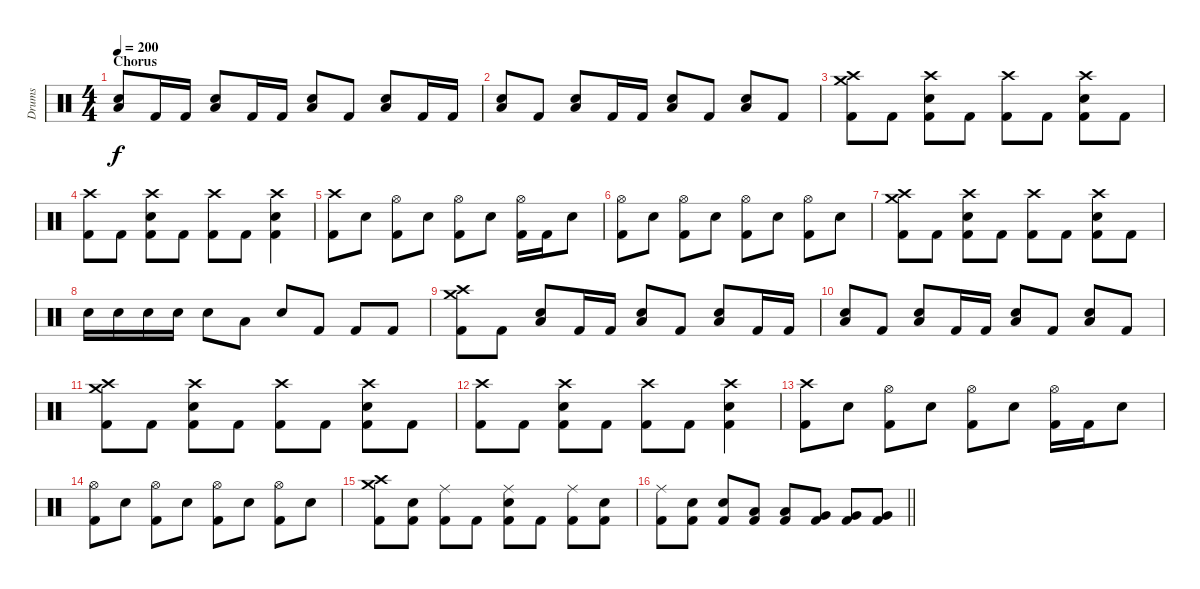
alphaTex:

\track ("Drums" "Drums") {instrument percussion}
\staff {score}
\articulation defaults
\ts (4 4)
\section ("" "Chorus")
\tempo 200
\clef neutral
\ks c
("Electric Snare (hit)" "Low Floor Tom (hit)").8{dy f} "Kick (hit) 2".16 "Kick (hit) 2".16 ("Electric Snare (hit)" "Low Floor Tom (hit)").8 "Kick (hit) 2".16 "Kick (hit) 2".16 ("Electric Snare (hit)" "Low Floor Tom (hit)").8 "Kick (hit) 2".8 ("Electric Snare (hit)" "Low Floor Tom (hit)").8 "Kick (hit) 2".16 "Kick (hit) 2".16 |
("Electric Snare (hit)" "Low Floor Tom (hit)").8 "Kick (hit) 2".8 ("Electric Snare (hit)" "Low Floor Tom (hit)").8 "Kick (hit) 2".16 "Kick (hit) 2".16 ("Electric Snare (hit)" "Low Floor Tom (hit)").8 "Kick (hit) 2".8 ("Electric Snare (hit)" "Low Floor Tom (hit)").8 "Kick (hit) 2".8 |
("Crash medium (hit)" "Crash high (hit)" "Kick (hit) 2").8 "Kick (hit) 2".8 ("Crash high (hit)" "Electric Snare (hit)" "Kick (hit) 2").8 "Kick (hit) 2".8 ("Crash high (hit)" "Kick (hit) 2").8 "Kick (hit) 2".8 ("Crash high (hit)" "Electric Snare (hit)" "Kick (hit) 2").8 "Kick (hit) 2".8 |
("Crash high (hit)" "Kick (hit) 2").8 "Kick (hit) 2".8 ("Crash high (hit)" "Electric Snare (hit)" "Kick (hit) 2").8 "Kick (hit) 2".8 ("Crash high (hit)" "Kick (hit) 2").8 "Kick (hit) 2".8 ("Crash high (hit)" "Electric Snare (hit)" "Kick (hit) 2").4 |
("Crash high (hit)" "Kick (hit) 2").8 "Electric Snare (hit)".8 ("Hi-Hat (open)" "Kick (hit) 2").8 "Electric Snare (hit)".8 ("Hi-Hat (open)" "Kick (hit) 2").8 "Electric Snare (hit)".8 ("Hi-Hat (open)" "Kick (hit) 2").16 "Kick (hit) 2".16 "Electric Snare (hit)".8 |
("Hi-Hat (open)" "Kick (hit) 2").8 "Electric Snare (hit)".8 ("Hi-Hat (open)" "Kick (hit) 2").8 "Electric Snare (hit)".8 ("Hi-Hat (open)" "Kick (hit) 2").8 "Electric Snare (hit)".8 ("Hi-Hat (open)" "Kick (hit) 2").8 "Electric Snare (hit)".8 |
("Crash medium (hit)" "Crash high (hit)" "Kick (hit) 2").8 "Kick (hit) 2".8 ("Crash high (hit)" "Electric Snare (hit)" "Kick (hit) 2").8 "Kick (hit) 2".8 ("Crash high (hit)" "Kick (hit) 2").8 "Kick (hit) 2".8 ("Crash high (hit)" "Electric Snare (hit)" "Kick (hit) 2").8 "Kick (hit) 2".8 |
"Electric Snare (hit)".16 "Electric Snare (hit)".16 "Electric Snare (hit)".16 "Electric Snare (hit)".16 "Electric Snare (hit)".8 "Low Tom (hit)".8 "Electric Snare (hit)".8 "Kick (hit) 2".8 "Kick (hit) 2".8 "Kick (hit) 2".8 |
("Crash medium (hit)" "Crash high (hit)" "Kick (hit) 2").8 "Kick (hit) 2".8 ("Electric Snare (hit)" "Low Floor Tom (hit)").8 "Kick (hit) 2".16 "Kick (hit) 2".16 ("Electric Snare (hit)" "Low Floor Tom (hit)").8 "Kick (hit) 2".8 ("Electric Snare (hit)" "Low Floor Tom (hit)").8 "Kick (hit) 2".16 "Kick (hit) 2".16 |
("Electric Snare (hit)" "Low Floor Tom (hit)").8 "Kick (hit) 2".8 ("Electric Snare (hit)" "Low Floor Tom (hit)").8 "Kick (hit) 2".16 "Kick (hit) 2".16 ("Electric Snare (hit)" "Low Floor Tom (hit)").8 "Kick (hit) 2".8 ("Electric Snare (hit)" "Low Floor Tom (hit)").8 "Kick (hit) 2".8 |
("Crash medium (hit)" "Crash high (hit)" "Kick (hit) 2").8 "Kick (hit) 2".8 ("Crash high (hit)" "Electric Snare (hit)" "Kick (hit) 2").8 "Kick (hit) 2".8 ("Crash high (hit)" "Kick (hit) 2").8 "Kick (hit) 2".8 ("Crash high (hit)" "Electric Snare (hit)" "Kick (hit) 2").8 "Kick (hit) 2".8 |
("Crash high (hit)" "Kick (hit) 2").8 "Kick (hit) 2".8 ("Crash high (hit)" "Electric Snare (hit)" "Kick (hit) 2").8 "Kick (hit) 2".8 ("Crash high (hit)" "Kick (hit) 2").8 "Kick (hit) 2".8 ("Crash high (hit)" "Electric Snare (hit)" "Kick (hit) 2").4 |
("Crash high (hit)" "Kick (hit) 2").8 "Electric Snare (hit)".8 ("Hi-Hat (open)" "Kick (hit) 2").8 "Electric Snare (hit)".8 ("Hi-Hat (open)" "Kick (hit) 2").8 "Electric Snare (hit)".8 ("Hi-Hat (open)" "Kick (hit) 2").16 "Kick (hit) 2".16 "Electric Snare (hit)".8 |
("Hi-Hat (open)" "Kick (hit) 2").8 "Electric Snare (hit)".8 ("Hi-Hat (open)" "Kick (hit) 2").8 "Electric Snare (hit)".8 ("Hi-Hat (open)" "Kick (hit) 2").8 "Electric Snare (hit)".8 ("Hi-Hat (open)" "Kick (hit) 2").8 "Electric Snare (hit)".8 |
("Crash medium (hit)" "Crash high (hit)" "Kick (hit) 2").8 ("Electric Snare (hit)" "Kick (hit) 2").8 ("Ride (middle)" "Kick (hit) 2").8 "Kick (hit) 2".8 ("Ride (middle)" "Electric Snare (hit)" "Kick (hit) 2").8 "Kick (hit) 2".8 ("Ride (middle)" "Kick (hit) 2").8 ("Electric Snare (hit)" "Kick (hit) 2").8 |
\barLineRight lightlight
("Ride (middle)" "Kick (hit) 2").8 ("Electric Snare (hit)" "Kick (hit) 2").8 ("Electric Snare (hit)" "Kick (hit) 2").8 ("Low Tom (hit)" "Kick (hit) 2").8 ("Low Tom (hit)" "Kick (hit) 2").8 ("Very Low Tom (hit)" "Kick (hit) 2").8 ("Very Low Tom (hit)" "Kick (hit) 2").8 ("Very Low Tom (hit)" "Kick (hit) 2").8
